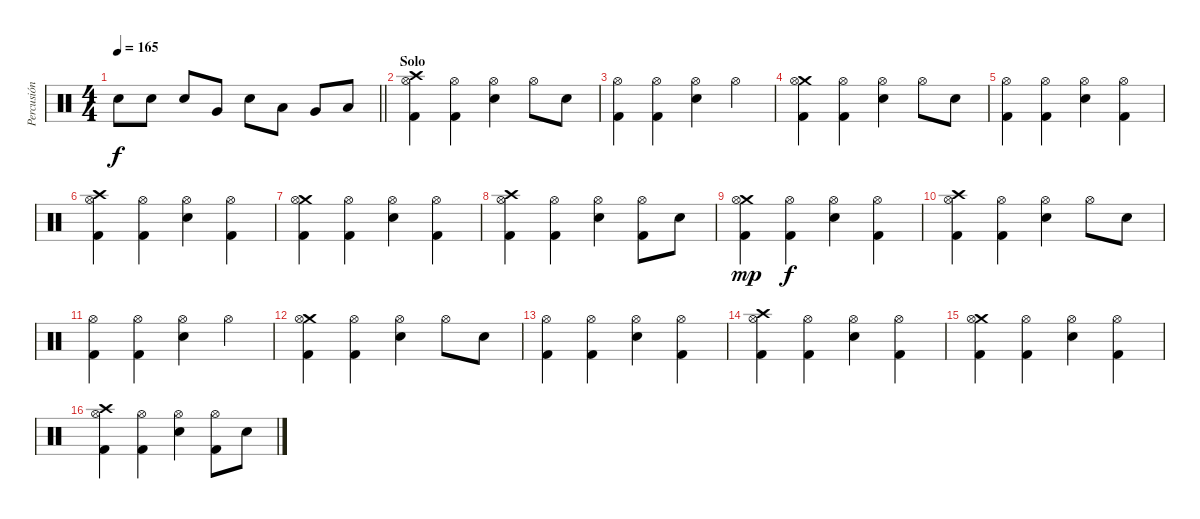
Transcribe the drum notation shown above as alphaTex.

\track ("Percusión" "Percusión") {instrument percussion}
\staff {score}
\articulation defaults
\ts (4 4)
\tempo 165
\clef neutral
\barLineRight lightlight
\ks c "Electric Snare (hit)".8{dy f} "Electric Snare (hit)".8 "Electric Snare (hit)".8 "Very Low Tom (hit)".8 "Electric Snare (hit)".8 "Low Tom (hit)".8 "Very Low Tom (hit)".8 "Low Floor Tom (hit)".8
|
\section ("" "Solo")
("Crash high (hit)" "Hi-Hat (open)" "Kick (hit) 2").4 ("Hi-Hat (open)" "Kick (hit) 2").4 ("Hi-Hat (open)" "Electric Snare (hit)").4 "Hi-Hat (open)".8 "Electric Snare (hit)".8 |
("Hi-Hat (open)" "Kick (hit) 2").4 ("Hi-Hat (open)" "Kick (hit) 2").4 ("Hi-Hat (open)" "Electric Snare (hit)").4 "Hi-Hat (open)".4 |
("Crash medium (hit)" "Hi-Hat (open)" "Kick (hit) 2").4 ("Hi-Hat (open)" "Kick (hit) 2").4 ("Hi-Hat (open)" "Electric Snare (hit)").4 "Hi-Hat (open)".8 "Electric Snare (hit)".8 |
("Hi-Hat (open)" "Kick (hit) 2").4 ("Hi-Hat (open)" "Kick (hit) 2").4 ("Hi-Hat (open)" "Electric Snare (hit)").4 ("Hi-Hat (open)" "Kick (hit) 2").4 |
("Crash high (hit)" "Hi-Hat (open)" "Kick (hit) 2").4 ("Hi-Hat (open)" "Kick (hit) 2").4 ("Hi-Hat (open)" "Electric Snare (hit)").4 ("Hi-Hat (open)" "Kick (hit) 2").4 |
("Crash medium (hit)" "Hi-Hat (open)" "Kick (hit) 2").4 ("Hi-Hat (open)" "Kick (hit) 2").4 ("Hi-Hat (open)" "Electric Snare (hit)").4 ("Hi-Hat (open)" "Kick (hit) 2").4 |
("Crash high (hit)" "Hi-Hat (open)" "Kick (hit) 2").4 ("Hi-Hat (open)" "Kick (hit) 2").4 ("Hi-Hat (open)" "Electric Snare (hit)").4 ("Hi-Hat (open)" "Kick (hit) 2").8 "Electric Snare (hit)".8 |
("Crash medium (hit)" "Hi-Hat (open)" "Kick (hit) 2").4{dy mp} ("Hi-Hat (open)" "Kick (hit) 2").4{dy f} ("Hi-Hat (open)" "Electric Snare (hit)").4 ("Hi-Hat (open)" "Kick (hit) 2").4 |
("Crash high (hit)" "Hi-Hat (open)" "Kick (hit) 2").4 ("Hi-Hat (open)" "Kick (hit) 2").4 ("Hi-Hat (open)" "Electric Snare (hit)").4 "Hi-Hat (open)".8 "Electric Snare (hit)".8 |
("Hi-Hat (open)" "Kick (hit) 2").4 ("Hi-Hat (open)" "Kick (hit) 2").4 ("Hi-Hat (open)" "Electric Snare (hit)").4 "Hi-Hat (open)".4 |
("Crash medium (hit)" "Hi-Hat (open)" "Kick (hit) 2").4 ("Hi-Hat (open)" "Kick (hit) 2").4 ("Hi-Hat (open)" "Electric Snare (hit)").4 "Hi-Hat (open)".8 "Electric Snare (hit)".8 |
("Hi-Hat (open)" "Kick (hit) 2").4 ("Hi-Hat (open)" "Kick (hit) 2").4 ("Hi-Hat (open)" "Electric Snare (hit)").4 ("Hi-Hat (open)" "Kick (hit) 2").4 |
("Crash high (hit)" "Hi-Hat (open)" "Kick (hit) 2").4 ("Hi-Hat (open)" "Kick (hit) 2").4 ("Hi-Hat (open)" "Electric Snare (hit)").4 ("Hi-Hat (open)" "Kick (hit) 2").4 |
("Crash medium (hit)" "Hi-Hat (open)" "Kick (hit) 2").4 ("Hi-Hat (open)" "Kick (hit) 2").4 ("Hi-Hat (open)" "Electric Snare (hit)").4 ("Hi-Hat (open)" "Kick (hit) 2").4 |
("Crash high (hit)" "Hi-Hat (open)" "Kick (hit) 2").4 ("Hi-Hat (open)" "Kick (hit) 2").4 ("Hi-Hat (open)" "Electric Snare (hit)").4 ("Hi-Hat (open)" "Kick (hit) 2").8 "Electric Snare (hit)".8
